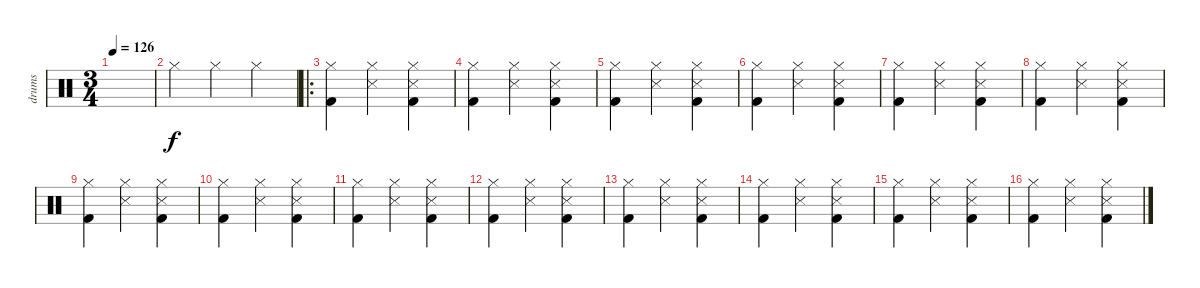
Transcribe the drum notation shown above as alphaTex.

\track ("drums" "drums") {instrument percussion}
\staff {score}
\articulation defaults
\ts (3 4)
\tempo 126
\clef neutral
\ks c
|
"Hi-Hat (closed)".4 "Hi-Hat (closed)".4 "Hi-Hat (closed)".4 |
\ro
("Hi-Hat (closed)" "Kick (hit) 2").4 ("Hi-Hat (closed)" "Snare (side stick) 3").4 ("Hi-Hat (closed)" "Snare (side stick) 3" "Kick (hit) 2").4 |
("Hi-Hat (closed)" "Kick (hit) 2").4 ("Hi-Hat (closed)" "Snare (side stick) 3").4 ("Hi-Hat (closed)" "Snare (side stick) 3" "Kick (hit) 2").4 |
("Hi-Hat (closed)" "Kick (hit) 2").4 ("Hi-Hat (closed)" "Snare (side stick) 3").4 ("Hi-Hat (closed)" "Snare (side stick) 3" "Kick (hit) 2").4 |
("Hi-Hat (closed)" "Kick (hit) 2").4 ("Hi-Hat (closed)" "Snare (side stick) 3").4 ("Hi-Hat (closed)" "Snare (side stick) 3" "Kick (hit) 2").4 |
("Hi-Hat (closed)" "Kick (hit) 2").4 ("Hi-Hat (closed)" "Snare (side stick) 3").4 ("Hi-Hat (closed)" "Snare (side stick) 3" "Kick (hit) 2").4 |
("Hi-Hat (closed)" "Kick (hit) 2").4 ("Hi-Hat (closed)" "Snare (side stick) 3").4 ("Hi-Hat (closed)" "Snare (side stick) 3" "Kick (hit) 2").4 |
("Hi-Hat (closed)" "Kick (hit) 2").4 ("Hi-Hat (closed)" "Snare (side stick) 3").4 ("Hi-Hat (closed)" "Snare (side stick) 3" "Kick (hit) 2").4 |
("Hi-Hat (closed)" "Kick (hit) 2").4 ("Hi-Hat (closed)" "Snare (side stick) 3").4 ("Hi-Hat (closed)" "Snare (side stick) 3" "Kick (hit) 2").4 |
("Hi-Hat (closed)" "Kick (hit) 2").4 ("Hi-Hat (closed)" "Snare (side stick) 3").4 ("Hi-Hat (closed)" "Snare (side stick) 3" "Kick (hit) 2").4 |
("Hi-Hat (closed)" "Kick (hit) 2").4 ("Hi-Hat (closed)" "Snare (side stick) 3").4 ("Hi-Hat (closed)" "Snare (side stick) 3" "Kick (hit) 2").4 |
("Hi-Hat (closed)" "Kick (hit) 2").4 ("Hi-Hat (closed)" "Snare (side stick) 3").4 ("Hi-Hat (closed)" "Snare (side stick) 3" "Kick (hit) 2").4 |
("Hi-Hat (closed)" "Kick (hit) 2").4 ("Hi-Hat (closed)" "Snare (side stick) 3").4 ("Hi-Hat (closed)" "Snare (side stick) 3" "Kick (hit) 2").4 |
("Hi-Hat (closed)" "Kick (hit) 2").4 ("Hi-Hat (closed)" "Snare (side stick) 3").4 ("Hi-Hat (closed)" "Snare (side stick) 3" "Kick (hit) 2").4 |
("Hi-Hat (closed)" "Kick (hit) 2").4 ("Hi-Hat (closed)" "Snare (side stick) 3").4 ("Hi-Hat (closed)" "Snare (side stick) 3" "Kick (hit) 2").4
